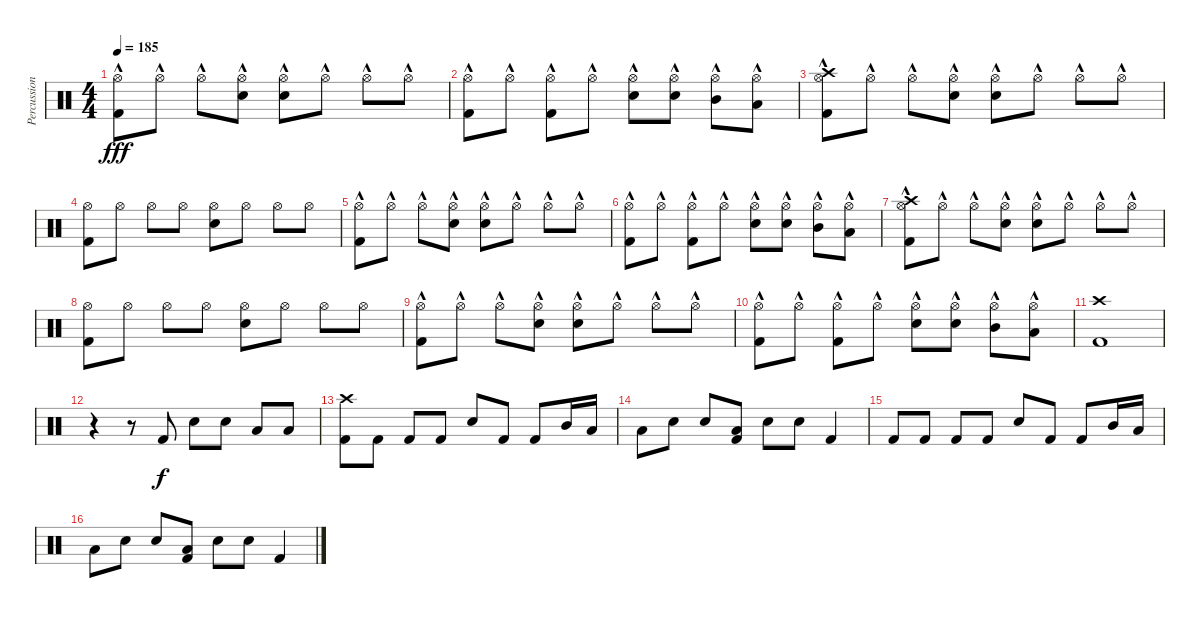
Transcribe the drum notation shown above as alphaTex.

\track ("Percussion" "Percussion") {instrument percussion}
\staff {score}
\articulation defaults
\ts (4 4)
\tempo 185
\clef neutral
\ks c
("Kick (hit) 2" "Hi-Hat (open)"{hac}).8{dy fff} "Hi-Hat (open)"{hac}.8 "Hi-Hat (open)"{hac}.8 ("Electric Snare (hit)" "Hi-Hat (open)"{hac}).8 ("Electric Snare (hit)" "Hi-Hat (open)"{hac}).8 "Hi-Hat (open)"{hac}.8 "Hi-Hat (open)"{hac}.8 "Hi-Hat (open)"{hac}.8 |
("Kick (hit) 2" "Hi-Hat (open)"{hac}).8 "Hi-Hat (open)"{hac}.8 ("Kick (hit) 2" "Hi-Hat (open)"{hac}).8 "Hi-Hat (open)"{hac}.8 ("Electric Snare (hit)" "Hi-Hat (open)"{hac}).8 ("Electric Snare (hit)" "Hi-Hat (open)"{hac}).8 ("Mid Tom (hit)" "Hi-Hat (open)"{hac}).8 ("Low Floor Tom (hit)" "Hi-Hat (open)"{hac}).8 |
("Crash high (hit)" "Kick (hit) 2" "Hi-Hat (open)"{hac}).8 "Hi-Hat (open)"{hac}.8 "Hi-Hat (open)"{hac}.8 ("Electric Snare (hit)" "Hi-Hat (open)"{hac}).8 ("Electric Snare (hit)" "Hi-Hat (open)"{hac}).8 "Hi-Hat (open)"{hac}.8 "Hi-Hat (open)"{hac}.8 "Hi-Hat (open)"{hac}.8 |
("Kick (hit) 2" "Hi-Hat (open)").8 "Hi-Hat (open)".8 "Hi-Hat (open)".8 "Hi-Hat (open)".8 ("Electric Snare (hit)" "Hi-Hat (open)").8 "Hi-Hat (open)".8 "Hi-Hat (open)".8 "Hi-Hat (open)".8 |
("Kick (hit) 2" "Hi-Hat (open)"{hac}).8 "Hi-Hat (open)"{hac}.8 "Hi-Hat (open)"{hac}.8 ("Electric Snare (hit)" "Hi-Hat (open)"{hac}).8 ("Electric Snare (hit)" "Hi-Hat (open)"{hac}).8 "Hi-Hat (open)"{hac}.8 "Hi-Hat (open)"{hac}.8 "Hi-Hat (open)"{hac}.8 |
("Kick (hit) 2" "Hi-Hat (open)"{hac}).8 "Hi-Hat (open)"{hac}.8 ("Kick (hit) 2" "Hi-Hat (open)"{hac}).8 "Hi-Hat (open)"{hac}.8 ("Electric Snare (hit)" "Hi-Hat (open)"{hac}).8 ("Electric Snare (hit)" "Hi-Hat (open)"{hac}).8 ("Mid Tom (hit)" "Hi-Hat (open)"{hac}).8 ("Low Floor Tom (hit)" "Hi-Hat (open)"{hac}).8 |
("Crash high (hit)" "Kick (hit) 2" "Hi-Hat (open)"{hac}).8 "Hi-Hat (open)"{hac}.8 "Hi-Hat (open)"{hac}.8 ("Electric Snare (hit)" "Hi-Hat (open)"{hac}).8 ("Electric Snare (hit)" "Hi-Hat (open)"{hac}).8 "Hi-Hat (open)"{hac}.8 "Hi-Hat (open)"{hac}.8 "Hi-Hat (open)"{hac}.8 |
("Kick (hit) 2" "Hi-Hat (open)").8 "Hi-Hat (open)".8 "Hi-Hat (open)".8 "Hi-Hat (open)".8 ("Electric Snare (hit)" "Hi-Hat (open)").8 "Hi-Hat (open)".8 "Hi-Hat (open)".8 "Hi-Hat (open)".8 |
("Kick (hit) 2" "Hi-Hat (open)"{hac}).8 "Hi-Hat (open)"{hac}.8 "Hi-Hat (open)"{hac}.8 ("Electric Snare (hit)" "Hi-Hat (open)"{hac}).8 ("Electric Snare (hit)" "Hi-Hat (open)"{hac}).8 "Hi-Hat (open)"{hac}.8 "Hi-Hat (open)"{hac}.8 "Hi-Hat (open)"{hac}.8 |
("Kick (hit) 2" "Hi-Hat (open)"{hac}).8 "Hi-Hat (open)"{hac}.8 ("Kick (hit) 2" "Hi-Hat (open)"{hac}).8 "Hi-Hat (open)"{hac}.8 ("Electric Snare (hit)" "Hi-Hat (open)"{hac}).8 ("Electric Snare (hit)" "Hi-Hat (open)"{hac}).8 ("Mid Tom (hit)" "Hi-Hat (open)"{hac}).8 ("Low Floor Tom (hit)" "Hi-Hat (open)"{hac}).8 |
("Crash high (hit)" "Kick (hit) 2").1 |
r.4 r.8 "Kick (hit) 2".8{dy f} "Electric Snare (hit)".8 "Electric Snare (hit)".8 "Low Tom (hit)".8 "Low Floor Tom (hit)".8 |
("Crash high (hit)" "Kick (hit) 2").8 "Kick (hit) 2".8 "Kick (hit) 2".8 "Kick (hit) 2".8 "Electric Snare (hit)".8 "Kick (hit) 2".8 "Kick (hit) 2".8 "Mid Tom (hit)".16 "Low Tom (hit)".16 |
"Low Floor Tom (hit)".8 "Electric Snare (hit)".8 "Electric Snare (hit)".8 ("Low Floor Tom (hit)" "Kick (hit) 2").8 "Electric Snare (hit)".8 "Electric Snare (hit)".8 "Kick (hit) 2".4 |
"Kick (hit) 2".8 "Kick (hit) 2".8 "Kick (hit) 2".8 "Kick (hit) 2".8 "Electric Snare (hit)".8 "Kick (hit) 2".8 "Kick (hit) 2".8 "Mid Tom (hit)".16 "Low Tom (hit)".16 |
"Low Floor Tom (hit)".8 "Electric Snare (hit)".8 "Electric Snare (hit)".8 ("Low Floor Tom (hit)" "Kick (hit) 2").8 "Electric Snare (hit)".8 "Electric Snare (hit)".8 "Kick (hit) 2".4
